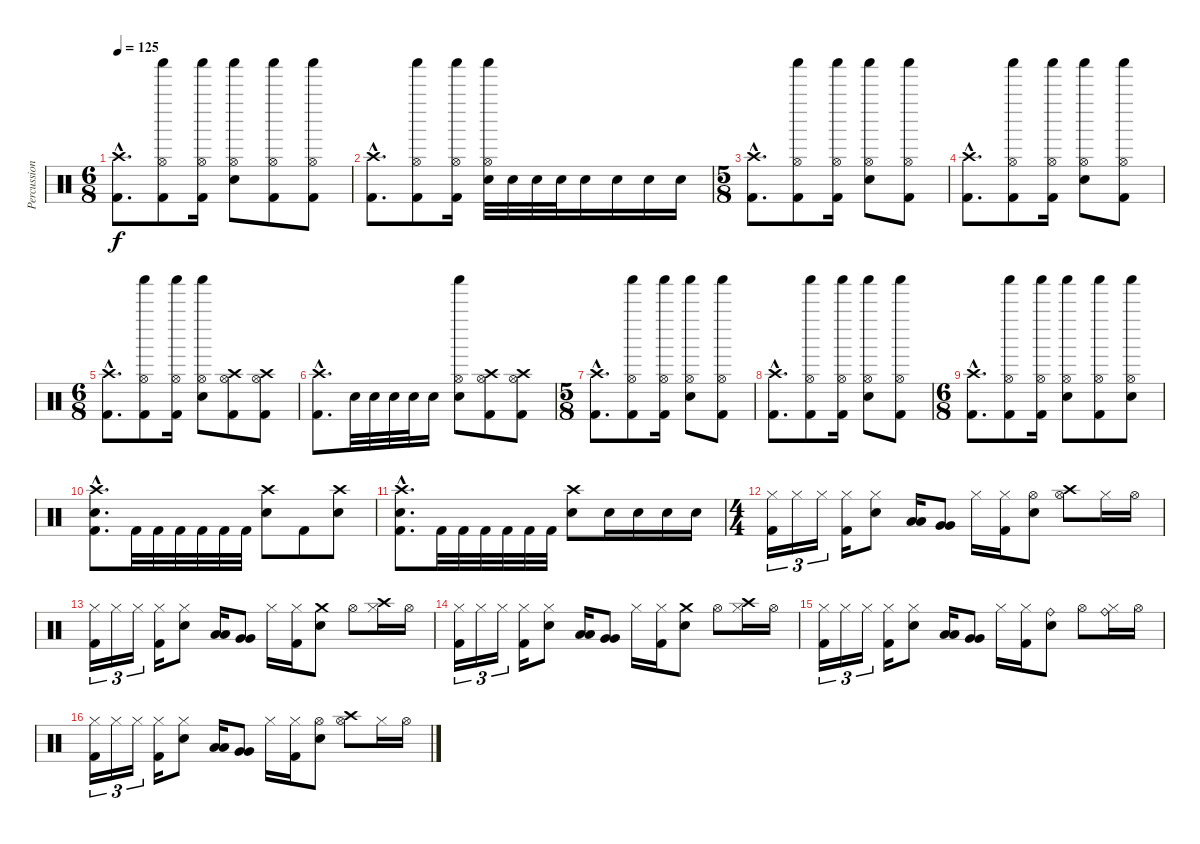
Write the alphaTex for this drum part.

\track ("Percussion" "Percussion") {instrument percussion}
\staff {score}
\articulation defaults
\ts (6 8)
\tempo 125
\clef neutral
\ks c
("Crash high (hit)"{hac} "Kick (hit) 2"{hac}).8{d dy f} ("Shaker (hit)" "Hi-Hat (open)" "Kick (hit) 2").8 ("Shaker (hit)" "Hi-Hat (open)" "Kick (hit) 2").16 ("Shaker (hit)" "Hi-Hat (open)" "Electric Snare (hit)").8 ("Shaker (hit)" "Hi-Hat (open)" "Kick (hit) 2").8 ("Shaker (hit)" "Hi-Hat (open)" "Kick (hit) 2").8 |
("Crash high (hit)"{hac} "Kick (hit) 2"{hac}).8{d} ("Shaker (hit)" "Hi-Hat (open)" "Kick (hit) 2").8 ("Shaker (hit)" "Hi-Hat (open)" "Kick (hit) 2").16 ("Shaker (hit)" "Hi-Hat (open)" "Electric Snare (hit)").32 "Electric Snare (hit)".32 "Electric Snare (hit)".32 "Electric Snare (hit)".32 "Electric Snare (hit)".16 "Electric Snare (hit)".16 "Electric Snare (hit)".16 "Electric Snare (hit)".16 |
\ts (5 8)
("Crash high (hit)"{hac} "Kick (hit) 2"{hac}).8{d} ("Shaker (hit)" "Hi-Hat (open)" "Kick (hit) 2").8 ("Shaker (hit)" "Hi-Hat (open)" "Kick (hit) 2").16 ("Shaker (hit)" "Hi-Hat (open)" "Electric Snare (hit)").8 ("Shaker (hit)" "Hi-Hat (open)" "Kick (hit) 2").8 |
("Crash high (hit)"{hac} "Kick (hit) 2"{hac}).8{d} ("Shaker (hit)" "Hi-Hat (open)" "Kick (hit) 2").8 ("Shaker (hit)" "Hi-Hat (open)" "Kick (hit) 2").16 ("Shaker (hit)" "Hi-Hat (open)" "Electric Snare (hit)").8 ("Shaker (hit)" "Hi-Hat (open)" "Kick (hit) 2").8 |
\ts (6 8)
("Crash high (hit)"{hac} "Kick (hit) 2"{hac}).8{d} ("Shaker (hit)" "Hi-Hat (open)" "Kick (hit) 2").8 ("Shaker (hit)" "Hi-Hat (open)" "Kick (hit) 2").16 ("Shaker (hit)" "Hi-Hat (open)" "Electric Snare (hit)").8 ("Crash high (hit)" "Hi-Hat (open)" "Kick (hit) 2").8 ("Crash high (hit)" "Hi-Hat (open)" "Kick (hit) 2").8 |
("Crash high (hit)"{hac} "Kick (hit) 2"{hac}).8{d} "Electric Snare (hit)".32 "Electric Snare (hit)".32 "Electric Snare (hit)".32 "Electric Snare (hit)".32 "Electric Snare (hit)".16 ("Shaker (hit)" "Hi-Hat (open)" "Electric Snare (hit)").8 ("Crash high (hit)" "Hi-Hat (open)" "Kick (hit) 2").8 ("Crash high (hit)" "Hi-Hat (open)" "Kick (hit) 2").8 |
\ts (5 8)
("Crash high (hit)"{hac} "Kick (hit) 2"{hac}).8{d} ("Shaker (hit)" "Hi-Hat (open)" "Kick (hit) 2").8 ("Shaker (hit)" "Hi-Hat (open)" "Kick (hit) 2").16 ("Shaker (hit)" "Hi-Hat (open)" "Electric Snare (hit)").8 ("Shaker (hit)" "Hi-Hat (open)" "Kick (hit) 2").8 |
("Crash high (hit)"{hac} "Kick (hit) 2"{hac}).8{d} ("Shaker (hit)" "Hi-Hat (open)" "Kick (hit) 2").8 ("Shaker (hit)" "Hi-Hat (open)" "Kick (hit) 2").16 ("Shaker (hit)" "Hi-Hat (open)" "Electric Snare (hit)").8 ("Shaker (hit)" "Hi-Hat (open)" "Kick (hit) 2").8 |
\ts (6 8)
("Crash high (hit)"{hac} "Kick (hit) 2"{hac}).8{d} ("Shaker (hit)" "Hi-Hat (open)" "Kick (hit) 2").8 ("Shaker (hit)" "Hi-Hat (open)" "Kick (hit) 2").16 ("Shaker (hit)" "Hi-Hat (open)" "Electric Snare (hit)").8 ("Shaker (hit)" "Hi-Hat (open)" "Kick (hit) 2").8 ("Shaker (hit)" "Hi-Hat (open)" "Electric Snare (hit)").8 |
("Crash high (hit)"{hac} "Electric Snare (hit)"{hac} "Kick (hit) 2"{hac}).8{d} "Kick (hit) 2".32 "Kick (hit) 2".32 "Kick (hit) 2".32 "Kick (hit) 2".32 "Kick (hit) 2".32 "Kick (hit) 2".32 ("Crash high (hit)" "Electric Snare (hit)").8 "Kick (hit) 2".8 ("Crash high (hit)" "Electric Snare (hit)").8 |
("Crash high (hit)"{hac} "Electric Snare (hit)"{hac} "Kick (hit) 2"{hac}).8{d} "Kick (hit) 2".32 "Kick (hit) 2".32 "Kick (hit) 2".32 "Kick (hit) 2".32 "Kick (hit) 2".32 "Kick (hit) 2".32 ("Crash high (hit)" "Electric Snare (hit)").8 "Electric Snare (hit)".16 "Electric Snare (hit)".16 "Electric Snare (hit)".16 "Electric Snare (hit)".16 |
\ts (4 4)
("Hi-Hat (closed)" "Kick (hit) 2").16{tu (3 2)} "Hi-Hat (closed)".16{tu (3 2)} "Hi-Hat (closed)".16{tu (3 2)} ("Hi-Hat (closed)" "Kick (hit) 2").16 ("Hi-Hat (closed)" "Electric Snare (hit)").8 ("Low Tom (hit)" "Low Tom (hit)").16 ("Very Low Tom (hit)" "Very Low Tom (hit)").8 "Hi-Hat (closed)".16 ("Hi-Hat (closed)" "Kick (hit) 2").16 ("Hi-Hat (open)" "Electric Snare (hit)").8 ("Crash high (hit)" "Hi-Hat (open)").8 "Hi-Hat (closed)".16 "Hi-Hat (open)".16 |
("Hi-Hat (closed)" "Kick (hit) 2").16{tu (3 2)} "Hi-Hat (closed)".16{tu (3 2)} "Hi-Hat (closed)".16{tu (3 2)} ("Hi-Hat (closed)" "Kick (hit) 2").16 ("Hi-Hat (closed)" "Electric Snare (hit)").8 ("Low Tom (hit)" "Low Tom (hit)").16 ("Very Low Tom (hit)" "Very Low Tom (hit)").8 "Hi-Hat (closed)".16 ("Hi-Hat (closed)" "Kick (hit) 2").16 ("Crash medium (hit)" "Electric Snare (hit)").8 "Hi-Hat (open)".8 ("Crash high (hit)" "Hi-Hat (closed)").16 "Hi-Hat (open)".16 |
("Hi-Hat (closed)" "Kick (hit) 2").16{tu (3 2)} "Hi-Hat (closed)".16{tu (3 2)} "Hi-Hat (closed)".16{tu (3 2)} ("Hi-Hat (closed)" "Kick (hit) 2").16 ("Hi-Hat (closed)" "Electric Snare (hit)").8 ("Low Tom (hit)" "Low Tom (hit)").16 ("Very Low Tom (hit)" "Very Low Tom (hit)").8 "Hi-Hat (closed)".16 ("Hi-Hat (closed)" "Kick (hit) 2").16 ("Crash medium (hit)" "Electric Snare (hit)").8 "Hi-Hat (open)".8 ("Crash high (hit)" "Hi-Hat (closed)").16 "Hi-Hat (open)".16 |
("Hi-Hat (closed)" "Kick (hit) 2").16{tu (3 2)} "Hi-Hat (closed)".16{tu (3 2)} "Hi-Hat (closed)".16{tu (3 2)} ("Hi-Hat (closed)" "Kick (hit) 2").16 ("Hi-Hat (closed)" "Electric Snare (hit)").8 ("Low Tom (hit)" "Low Tom (hit)").16 ("Very Low Tom (hit)" "Very Low Tom (hit)").8 "Hi-Hat (closed)".16 ("Hi-Hat (closed)" "Kick (hit) 2").16 ("Ride (bell)" "Electric Snare (hit)").8 "Hi-Hat (open)".8 ("Ride (bell)" "Hi-Hat (closed)").16 "Hi-Hat (open)".16 |
("Hi-Hat (closed)" "Kick (hit) 2").16{tu (3 2)} "Hi-Hat (closed)".16{tu (3 2)} "Hi-Hat (closed)".16{tu (3 2)} ("Hi-Hat (closed)" "Kick (hit) 2").16 ("Hi-Hat (closed)" "Electric Snare (hit)").8 ("Low Tom (hit)" "Low Tom (hit)").16 ("Very Low Tom (hit)" "Very Low Tom (hit)").8 "Hi-Hat (closed)".16 ("Hi-Hat (closed)" "Kick (hit) 2").16 ("Hi-Hat (open)" "Electric Snare (hit)").8 ("Crash high (hit)" "Hi-Hat (open)").8 "Hi-Hat (closed)".16 "Hi-Hat (open)".16
